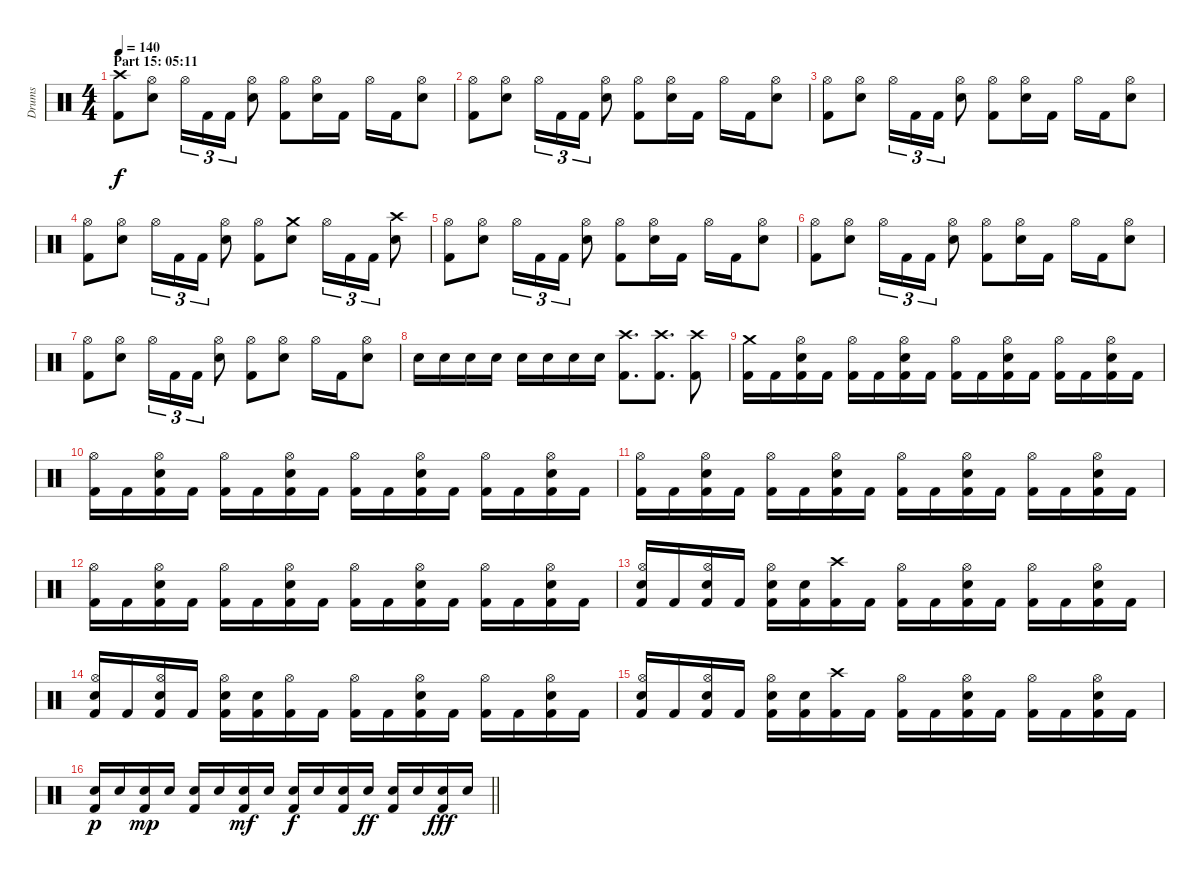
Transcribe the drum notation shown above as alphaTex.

\track ("Drums" "Drums") {instrument percussion}
\staff {score}
\articulation defaults
\ts (4 4)
\section ("" "Part 15: 05:11")
\tempo 140
\clef neutral
\ks c
("Crash high (hit)" "Kick (hit) 2").8{dy f} ("Hi-Hat (open)" "Electric Snare (hit)").8 "Hi-Hat (open)".16{tu (3 2)} "Kick (hit) 2".16{tu (3 2)} "Kick (hit) 2".16{tu (3 2)} ("Hi-Hat (open)" "Electric Snare (hit)").8 ("Hi-Hat (open)" "Kick (hit) 2").8 ("Hi-Hat (open)" "Electric Snare (hit)").16 "Kick (hit) 2".16 "Hi-Hat (open)".16 "Kick (hit) 2".16 ("Hi-Hat (open)" "Electric Snare (hit)").8 |
("Hi-Hat (open)" "Kick (hit) 2").8 ("Hi-Hat (open)" "Electric Snare (hit)").8 "Hi-Hat (open)".16{tu (3 2)} "Kick (hit) 2".16{tu (3 2)} "Kick (hit) 2".16{tu (3 2)} ("Hi-Hat (open)" "Electric Snare (hit)").8 ("Hi-Hat (open)" "Kick (hit) 2").8 ("Hi-Hat (open)" "Electric Snare (hit)").16 "Kick (hit) 2".16 "Hi-Hat (open)".16 "Kick (hit) 2".16 ("Hi-Hat (open)" "Electric Snare (hit)").8 |
("Hi-Hat (open)" "Kick (hit) 2").8 ("Hi-Hat (open)" "Electric Snare (hit)").8 "Hi-Hat (open)".16{tu (3 2)} "Kick (hit) 2".16{tu (3 2)} "Kick (hit) 2".16{tu (3 2)} ("Hi-Hat (open)" "Electric Snare (hit)").8 ("Hi-Hat (open)" "Kick (hit) 2").8 ("Hi-Hat (open)" "Electric Snare (hit)").16 "Kick (hit) 2".16 "Hi-Hat (open)".16 "Kick (hit) 2".16 ("Hi-Hat (open)" "Electric Snare (hit)").8 |
("Hi-Hat (open)" "Kick (hit) 2").8 ("Hi-Hat (open)" "Electric Snare (hit)").8 "Hi-Hat (open)".16{tu (3 2)} "Kick (hit) 2".16{tu (3 2)} "Kick (hit) 2".16{tu (3 2)} ("Hi-Hat (open)" "Electric Snare (hit)").8 ("Hi-Hat (open)" "Kick (hit) 2").8 ("Crash medium (hit)" "Electric Snare (hit)").8 "Hi-Hat (open)".16{tu (3 2)} "Kick (hit) 2".16{tu (3 2)} "Kick (hit) 2".16{tu (3 2)} ("Crash high (hit)" "Electric Snare (hit)").8 |
("Hi-Hat (open)" "Kick (hit) 2").8 ("Hi-Hat (open)" "Electric Snare (hit)").8 "Hi-Hat (open)".16{tu (3 2)} "Kick (hit) 2".16{tu (3 2)} "Kick (hit) 2".16{tu (3 2)} ("Hi-Hat (open)" "Electric Snare (hit)").8 ("Hi-Hat (open)" "Kick (hit) 2").8 ("Hi-Hat (open)" "Electric Snare (hit)").16 "Kick (hit) 2".16 "Hi-Hat (open)".16 "Kick (hit) 2".16 ("Hi-Hat (open)" "Electric Snare (hit)").8 |
("Hi-Hat (open)" "Kick (hit) 2").8 ("Hi-Hat (open)" "Electric Snare (hit)").8 "Hi-Hat (open)".16{tu (3 2)} "Kick (hit) 2".16{tu (3 2)} "Kick (hit) 2".16{tu (3 2)} ("Hi-Hat (open)" "Electric Snare (hit)").8 ("Hi-Hat (open)" "Kick (hit) 2").8 ("Hi-Hat (open)" "Electric Snare (hit)").16 "Kick (hit) 2".16 "Hi-Hat (open)".16 "Kick (hit) 2".16 ("Hi-Hat (open)" "Electric Snare (hit)").8 |
("Hi-Hat (open)" "Kick (hit) 2").8 ("Hi-Hat (open)" "Electric Snare (hit)").8 "Hi-Hat (open)".16{tu (3 2)} "Kick (hit) 2".16{tu (3 2)} "Kick (hit) 2".16{tu (3 2)} ("Hi-Hat (open)" "Electric Snare (hit)").8 ("Hi-Hat (open)" "Kick (hit) 2").8 ("Hi-Hat (open)" "Electric Snare (hit)").8 "Hi-Hat (open)".16 "Kick (hit) 2".16 ("Hi-Hat (open)" "Electric Snare (hit)").8 |
"Electric Snare (hit)".16 "Electric Snare (hit)".16 "Electric Snare (hit)".16 "Electric Snare (hit)".16 "Electric Snare (hit)".16 "Electric Snare (hit)".16 "Electric Snare (hit)".16 "Electric Snare (hit)".16 ("Crash high (hit)" "Kick (hit) 2").8{d} ("Crash high (hit)" "Kick (hit) 2").8{d} ("Crash high (hit)" "Kick (hit) 2").8 |
("Crash medium (hit)" "Kick (hit) 2").16 "Kick (hit) 2".16 ("Hi-Hat (open)" "Electric Snare (hit)" "Kick (hit) 2").16 "Kick (hit) 2".16 ("Hi-Hat (open)" "Kick (hit) 2").16 "Kick (hit) 2".16 ("Hi-Hat (open)" "Electric Snare (hit)" "Kick (hit) 2").16 "Kick (hit) 2".16 ("Hi-Hat (open)" "Kick (hit) 2").16 "Kick (hit) 2".16 ("Hi-Hat (open)" "Electric Snare (hit)" "Kick (hit) 2").16 "Kick (hit) 2".16 ("Hi-Hat (open)" "Kick (hit) 2").16 "Kick (hit) 2".16 ("Hi-Hat (open)" "Electric Snare (hit)" "Kick (hit) 2").16 "Kick (hit) 2".16 |
("Hi-Hat (open)" "Kick (hit) 2").16 "Kick (hit) 2".16 ("Hi-Hat (open)" "Electric Snare (hit)" "Kick (hit) 2").16 "Kick (hit) 2".16 ("Hi-Hat (open)" "Kick (hit) 2").16 "Kick (hit) 2".16 ("Hi-Hat (open)" "Electric Snare (hit)" "Kick (hit) 2").16 "Kick (hit) 2".16 ("Hi-Hat (open)" "Kick (hit) 2").16 "Kick (hit) 2".16 ("Hi-Hat (open)" "Electric Snare (hit)" "Kick (hit) 2").16 "Kick (hit) 2".16 ("Hi-Hat (open)" "Kick (hit) 2").16 "Kick (hit) 2".16 ("Hi-Hat (open)" "Electric Snare (hit)" "Kick (hit) 2").16 "Kick (hit) 2".16 |
("Hi-Hat (open)" "Kick (hit) 2").16 "Kick (hit) 2".16 ("Hi-Hat (open)" "Electric Snare (hit)" "Kick (hit) 2").16 "Kick (hit) 2".16 ("Hi-Hat (open)" "Kick (hit) 2").16 "Kick (hit) 2".16 ("Hi-Hat (open)" "Electric Snare (hit)" "Kick (hit) 2").16 "Kick (hit) 2".16 ("Hi-Hat (open)" "Kick (hit) 2").16 "Kick (hit) 2".16 ("Hi-Hat (open)" "Electric Snare (hit)" "Kick (hit) 2").16 "Kick (hit) 2".16 ("Hi-Hat (open)" "Kick (hit) 2").16 "Kick (hit) 2".16 ("Hi-Hat (open)" "Electric Snare (hit)" "Kick (hit) 2").16 "Kick (hit) 2".16 |
("Hi-Hat (open)" "Kick (hit) 2").16 "Kick (hit) 2".16 ("Hi-Hat (open)" "Electric Snare (hit)" "Kick (hit) 2").16 "Kick (hit) 2".16 ("Hi-Hat (open)" "Kick (hit) 2").16 "Kick (hit) 2".16 ("Hi-Hat (open)" "Electric Snare (hit)" "Kick (hit) 2").16 "Kick (hit) 2".16 ("Hi-Hat (open)" "Kick (hit) 2").16 "Kick (hit) 2".16 ("Hi-Hat (open)" "Electric Snare (hit)" "Kick (hit) 2").16 "Kick (hit) 2".16 ("Hi-Hat (open)" "Kick (hit) 2").16 "Kick (hit) 2".16 ("Hi-Hat (open)" "Electric Snare (hit)" "Kick (hit) 2").16 "Kick (hit) 2".16 |
("Hi-Hat (open)" "Electric Snare (hit)" "Kick (hit) 2").16 "Kick (hit) 2".16 ("Hi-Hat (open)" "Electric Snare (hit)" "Kick (hit) 2").16 "Kick (hit) 2".16 ("Hi-Hat (open)" "Electric Snare (hit)" "Kick (hit) 2").16 ("Electric Snare (hit)" "Kick (hit) 2").16 ("Crash high (hit)" "Kick (hit) 2").16 "Kick (hit) 2".16 ("Hi-Hat (open)" "Kick (hit) 2").16 "Kick (hit) 2".16 ("Hi-Hat (open)" "Electric Snare (hit)" "Kick (hit) 2").16 "Kick (hit) 2".16 ("Hi-Hat (open)" "Kick (hit) 2").16 "Kick (hit) 2".16 ("Hi-Hat (open)" "Electric Snare (hit)" "Kick (hit) 2").16 "Kick (hit) 2".16 |
("Hi-Hat (open)" "Electric Snare (hit)" "Kick (hit) 2").16 "Kick (hit) 2".16 ("Hi-Hat (open)" "Electric Snare (hit)" "Kick (hit) 2").16 "Kick (hit) 2".16 ("Hi-Hat (open)" "Electric Snare (hit)" "Kick (hit) 2").16 ("Electric Snare (hit)" "Kick (hit) 2").16 ("Hi-Hat (open)" "Kick (hit) 2").16 "Kick (hit) 2".16 ("Hi-Hat (open)" "Kick (hit) 2").16 "Kick (hit) 2".16 ("Hi-Hat (open)" "Electric Snare (hit)" "Kick (hit) 2").16 "Kick (hit) 2".16 ("Hi-Hat (open)" "Kick (hit) 2").16 "Kick (hit) 2".16 ("Hi-Hat (open)" "Electric Snare (hit)" "Kick (hit) 2").16 "Kick (hit) 2".16 |
("Hi-Hat (open)" "Electric Snare (hit)" "Kick (hit) 2").16 "Kick (hit) 2".16 ("Hi-Hat (open)" "Electric Snare (hit)" "Kick (hit) 2").16 "Kick (hit) 2".16 ("Hi-Hat (open)" "Electric Snare (hit)" "Kick (hit) 2").16 ("Electric Snare (hit)" "Kick (hit) 2").16 ("Crash high (hit)" "Kick (hit) 2").16 "Kick (hit) 2".16 ("Hi-Hat (open)" "Kick (hit) 2").16 "Kick (hit) 2".16 ("Hi-Hat (open)" "Electric Snare (hit)" "Kick (hit) 2").16 "Kick (hit) 2".16 ("Hi-Hat (open)" "Kick (hit) 2").16 "Kick (hit) 2".16 ("Hi-Hat (open)" "Electric Snare (hit)" "Kick (hit) 2").16 "Kick (hit) 2".16 |
\barLineRight lightlight
("Electric Snare (hit)" "Kick (hit) 2").16{dy p} "Electric Snare (hit)".16 ("Electric Snare (hit)" "Kick (hit) 2").16{dy mp} "Electric Snare (hit)".16 ("Electric Snare (hit)" "Kick (hit) 2").16 "Electric Snare (hit)".16 ("Electric Snare (hit)" "Kick (hit) 2").16{dy mf} "Electric Snare (hit)".16 ("Electric Snare (hit)" "Kick (hit) 2").16{dy f} "Electric Snare (hit)".16 ("Electric Snare (hit)" "Kick (hit) 2").16 "Electric Snare (hit)".16{dy ff} ("Electric Snare (hit)" "Kick (hit) 2").16 "Electric Snare (hit)".16 ("Electric Snare (hit)" "Kick (hit) 2").16{dy fff} "Electric Snare (hit)".16
